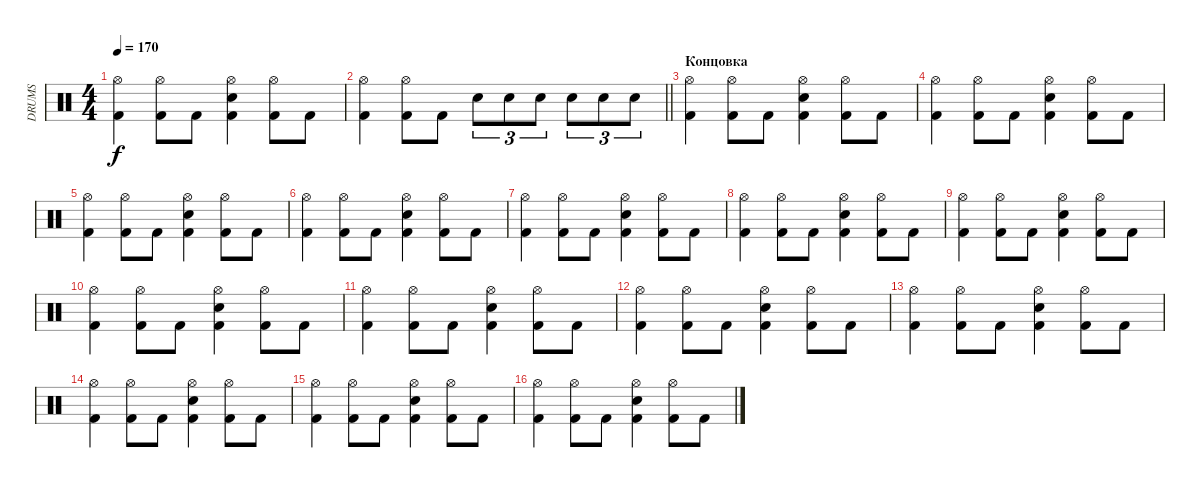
\track ("DRUMS" "DRUMS") {instrument percussion}
\staff {score}
\articulation defaults
\ts (4 4)
\tempo 170
\clef neutral
\ks c
("Hi-Hat (open)" "Kick (hit) 2").4{dy f} ("Hi-Hat (open)" "Kick (hit) 2").8 "Kick (hit) 2".8 ("Hi-Hat (open)" "Snare (hit) 2" "Kick (hit) 2").4 ("Hi-Hat (open)" "Kick (hit) 2").8 "Kick (hit) 2".8 |
\barLineRight lightlight
("Hi-Hat (open)" "Kick (hit) 2").4 ("Hi-Hat (open)" "Kick (hit) 2").8 "Kick (hit) 2".8 "Snare (hit) 2".8{tu (3 2)} "Snare (hit) 2".8{tu (3 2)} "Snare (hit) 2".8{tu (3 2)} "Snare (hit) 2".8{tu (3 2)} "Snare (hit) 2".8{tu (3 2)} "Snare (hit) 2".8{tu (3 2)} |
\section ("" "Концовка")
("Hi-Hat (open)" "Kick (hit) 2").4 ("Hi-Hat (open)" "Kick (hit) 2").8 "Kick (hit) 2".8 ("Hi-Hat (open)" "Snare (hit) 2" "Kick (hit) 2").4 ("Hi-Hat (open)" "Kick (hit) 2").8 "Kick (hit) 2".8 |
("Hi-Hat (open)" "Kick (hit) 2").4 ("Hi-Hat (open)" "Kick (hit) 2").8 "Kick (hit) 2".8 ("Hi-Hat (open)" "Snare (hit) 2" "Kick (hit) 2").4 ("Hi-Hat (open)" "Kick (hit) 2").8 "Kick (hit) 2".8 |
("Hi-Hat (open)" "Kick (hit) 2").4 ("Hi-Hat (open)" "Kick (hit) 2").8 "Kick (hit) 2".8 ("Hi-Hat (open)" "Snare (hit) 2" "Kick (hit) 2").4 ("Hi-Hat (open)" "Kick (hit) 2").8 "Kick (hit) 2".8 |
("Hi-Hat (open)" "Kick (hit) 2").4 ("Hi-Hat (open)" "Kick (hit) 2").8 "Kick (hit) 2".8 ("Hi-Hat (open)" "Snare (hit) 2" "Kick (hit) 2").4 ("Hi-Hat (open)" "Kick (hit) 2").8 "Kick (hit) 2".8 |
("Hi-Hat (open)" "Kick (hit) 2").4 ("Hi-Hat (open)" "Kick (hit) 2").8 "Kick (hit) 2".8 ("Hi-Hat (open)" "Snare (hit) 2" "Kick (hit) 2").4 ("Hi-Hat (open)" "Kick (hit) 2").8 "Kick (hit) 2".8 |
("Hi-Hat (open)" "Kick (hit) 2").4 ("Hi-Hat (open)" "Kick (hit) 2").8 "Kick (hit) 2".8 ("Hi-Hat (open)" "Snare (hit) 2" "Kick (hit) 2").4 ("Hi-Hat (open)" "Kick (hit) 2").8 "Kick (hit) 2".8 |
("Hi-Hat (open)" "Kick (hit) 2").4 ("Hi-Hat (open)" "Kick (hit) 2").8 "Kick (hit) 2".8 ("Hi-Hat (open)" "Snare (hit) 2" "Kick (hit) 2").4 ("Hi-Hat (open)" "Kick (hit) 2").8 "Kick (hit) 2".8 |
("Hi-Hat (open)" "Kick (hit) 2").4 ("Hi-Hat (open)" "Kick (hit) 2").8 "Kick (hit) 2".8 ("Hi-Hat (open)" "Snare (hit) 2" "Kick (hit) 2").4 ("Hi-Hat (open)" "Kick (hit) 2").8 "Kick (hit) 2".8 |
("Hi-Hat (open)" "Kick (hit) 2").4 ("Hi-Hat (open)" "Kick (hit) 2").8 "Kick (hit) 2".8 ("Hi-Hat (open)" "Snare (hit) 2" "Kick (hit) 2").4 ("Hi-Hat (open)" "Kick (hit) 2").8 "Kick (hit) 2".8 |
("Hi-Hat (open)" "Kick (hit) 2").4 ("Hi-Hat (open)" "Kick (hit) 2").8 "Kick (hit) 2".8 ("Hi-Hat (open)" "Snare (hit) 2" "Kick (hit) 2").4 ("Hi-Hat (open)" "Kick (hit) 2").8 "Kick (hit) 2".8 |
("Hi-Hat (open)" "Kick (hit) 2").4 ("Hi-Hat (open)" "Kick (hit) 2").8 "Kick (hit) 2".8 ("Hi-Hat (open)" "Snare (hit) 2" "Kick (hit) 2").4 ("Hi-Hat (open)" "Kick (hit) 2").8 "Kick (hit) 2".8 |
("Hi-Hat (open)" "Kick (hit) 2").4 ("Hi-Hat (open)" "Kick (hit) 2").8 "Kick (hit) 2".8 ("Hi-Hat (open)" "Snare (hit) 2" "Kick (hit) 2").4 ("Hi-Hat (open)" "Kick (hit) 2").8 "Kick (hit) 2".8 |
("Hi-Hat (open)" "Kick (hit) 2").4 ("Hi-Hat (open)" "Kick (hit) 2").8 "Kick (hit) 2".8 ("Hi-Hat (open)" "Snare (hit) 2" "Kick (hit) 2").4 ("Hi-Hat (open)" "Kick (hit) 2").8 "Kick (hit) 2".8 |
("Hi-Hat (open)" "Kick (hit) 2").4 ("Hi-Hat (open)" "Kick (hit) 2").8 "Kick (hit) 2".8 ("Hi-Hat (open)" "Snare (hit) 2" "Kick (hit) 2").4 ("Hi-Hat (open)" "Kick (hit) 2").8 "Kick (hit) 2".8
